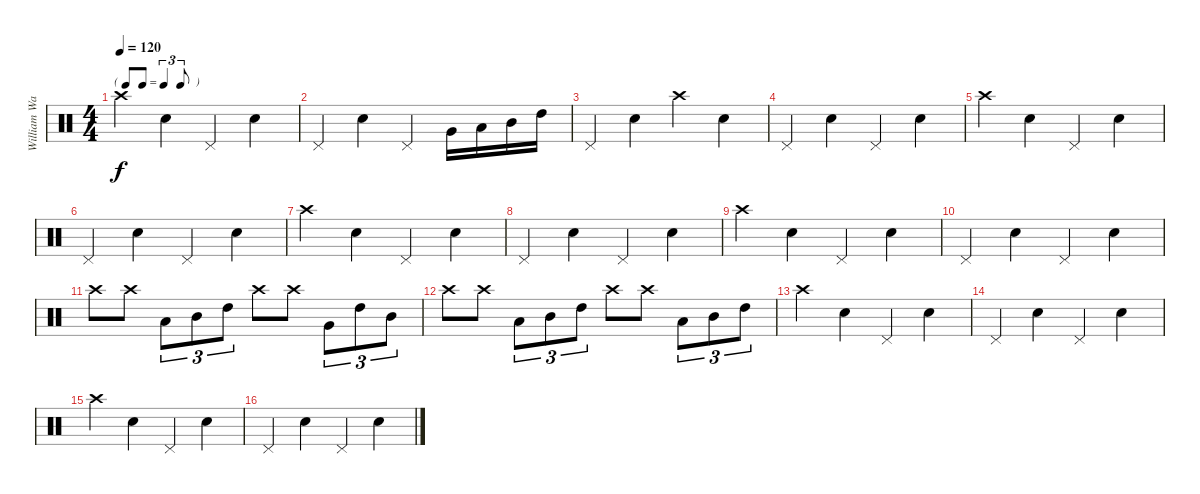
\track ("William Ward" "William Wa") {instrument percussion}
\staff {score}
\articulation defaults
\ts (4 4)
\tf triplet8th
\tempo 120
\clef neutral
\ks c "Crash high (hit)".4{dy f} "Snare (hit) 2".4 "Pedal Hi-Hat (hit)".4 "Snare (hit) 2".4
|
"Pedal Hi-Hat (hit)".4 "Snare (hit) 2".4 "Pedal Hi-Hat (hit)".4 "Very Low Tom (hit)".16 "Low Tom (hit)".16 "Mid Tom (hit)".16 "High Tom (hit)".16 |
"Pedal Hi-Hat (hit)".4 "Snare (hit) 2".4 "Crash high (hit)".4 "Snare (hit) 2".4 |
"Pedal Hi-Hat (hit)".4 "Snare (hit) 2".4 "Pedal Hi-Hat (hit)".4 "Snare (hit) 2".4 |
"Crash high (hit)".4 "Snare (hit) 2".4 "Pedal Hi-Hat (hit)".4 "Snare (hit) 2".4 |
"Pedal Hi-Hat (hit)".4 "Snare (hit) 2".4 "Pedal Hi-Hat (hit)".4 "Snare (hit) 2".4 |
"Crash high (hit)".4 "Snare (hit) 2".4 "Pedal Hi-Hat (hit)".4 "Snare (hit) 2".4 |
"Pedal Hi-Hat (hit)".4 "Snare (hit) 2".4 "Pedal Hi-Hat (hit)".4 "Snare (hit) 2".4 |
"Crash high (hit)".4 "Snare (hit) 2".4 "Pedal Hi-Hat (hit)".4 "Snare (hit) 2".4 |
"Pedal Hi-Hat (hit)".4 "Snare (hit) 2".4 "Pedal Hi-Hat (hit)".4 "Snare (hit) 2".4 |
"Crash high (hit)".8 "Crash high (hit)".8 "Low Tom (hit)".8{tu (3 2)} "Mid Tom (hit)".8{tu (3 2)} "High Tom (hit)".8{tu (3 2)} "Crash high (hit)".8 "Crash high (hit)".8 "Very Low Tom (hit)".8{tu (3 2)} "High Tom (hit)".8{tu (3 2)} "Mid Tom (hit)".8{tu (3 2)} |
"Crash high (hit)".8 "Crash high (hit)".8 "Low Tom (hit)".8{tu (3 2)} "Mid Tom (hit)".8{tu (3 2)} "High Tom (hit)".8{tu (3 2)} "Crash high (hit)".8 "Crash high (hit)".8 "Low Tom (hit)".8{tu (3 2)} "Mid Tom (hit)".8{tu (3 2)} "High Tom (hit)".8{tu (3 2)} |
"Crash high (hit)".4 "Snare (hit) 2".4 "Pedal Hi-Hat (hit)".4 "Snare (hit) 2".4 |
"Pedal Hi-Hat (hit)".4 "Snare (hit) 2".4 "Pedal Hi-Hat (hit)".4 "Snare (hit) 2".4 |
"Crash high (hit)".4 "Snare (hit) 2".4 "Pedal Hi-Hat (hit)".4 "Snare (hit) 2".4 |
"Pedal Hi-Hat (hit)".4 "Snare (hit) 2".4 "Pedal Hi-Hat (hit)".4 "Snare (hit) 2".4
